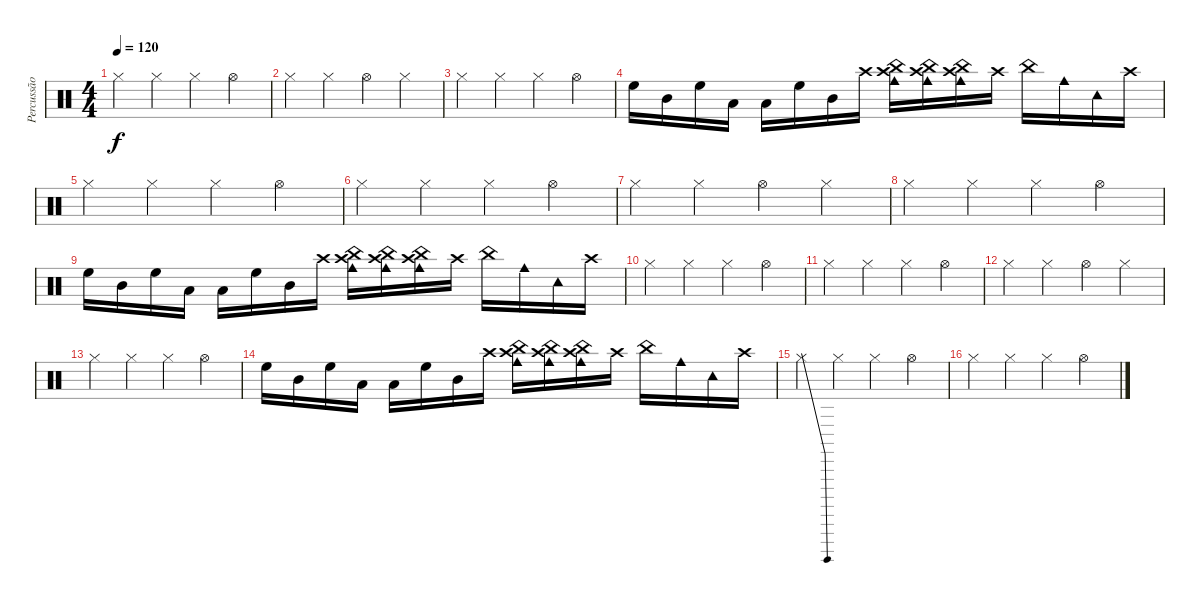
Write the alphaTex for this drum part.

\track ("Percussão" "Percussão") {instrument percussion}
\staff {score}
\articulation defaults
\ts (4 4)
\tempo 120
\clef neutral
\ks c "Hi-Hat (closed)".4{dy f} "Hi-Hat (closed)".4 "Hi-Hat (closed)".4 "Hi-Hat (open)".4
|
"Hi-Hat (closed)".4 "Hi-Hat (closed)".4 "Hi-Hat (open)".4 "Hi-Hat (closed)".4 |
"Hi-Hat (closed)".4 "Hi-Hat (closed)".4 "Hi-Hat (closed)".4 "Hi-Hat (open)".4 |
"High Floor Tom (hit)".16 "Mid Tom (hit)".16 "High Floor Tom (hit)".16 "Low Tom (hit)".16 "Low Floor Tom (hit)".16 "High Floor Tom (hit)".16 "Mid Tom (hit)".16 "Crash high (hit)".16 ("China (hit)" "Crash high (hit)" "Cowbell medium (hit)").16 ("China (hit)" "Crash high (hit)" "Cowbell medium (hit)").16 ("China (hit)" "Crash high (hit)" "Cowbell medium (hit)").16 "Crash high (hit)".16 "China (hit)".16 "Cowbell medium (hit)".16 "Tambourine (hit)".16 "Crash high (hit)".16 |
"Hi-Hat (closed)".4 "Hi-Hat (closed)".4 "Hi-Hat (closed)".4 "Hi-Hat (open)".4 |
"Hi-Hat (closed)".4 "Hi-Hat (closed)".4 "Hi-Hat (closed)".4 "Hi-Hat (open)".4 |
"Hi-Hat (closed)".4 "Hi-Hat (closed)".4 "Hi-Hat (open)".4 "Hi-Hat (closed)".4 |
"Hi-Hat (closed)".4 "Hi-Hat (closed)".4 "Hi-Hat (closed)".4 "Hi-Hat (open)".4 |
"High Floor Tom (hit)".16 "Mid Tom (hit)".16 "High Floor Tom (hit)".16 "Low Tom (hit)".16 "Low Floor Tom (hit)".16 "High Floor Tom (hit)".16 "Mid Tom (hit)".16 "Crash high (hit)".16 ("China (hit)" "Crash high (hit)" "Cowbell medium (hit)").16 ("China (hit)" "Crash high (hit)" "Cowbell medium (hit)").16 ("China (hit)" "Crash high (hit)" "Cowbell medium (hit)").16 "Crash high (hit)".16 "China (hit)".16 "Cowbell medium (hit)".16 "Tambourine (hit)".16 "Crash high (hit)".16 |
"Hi-Hat (closed)".4 "Hi-Hat (closed)".4 "Hi-Hat (closed)".4 "Hi-Hat (open)".4 |
"Hi-Hat (closed)".4 "Hi-Hat (closed)".4 "Hi-Hat (closed)".4 "Hi-Hat (open)".4 |
"Hi-Hat (closed)".4 "Hi-Hat (closed)".4 "Hi-Hat (open)".4 "Hi-Hat (closed)".4 |
"Hi-Hat (closed)".4 "Hi-Hat (closed)".4 "Hi-Hat (closed)".4 "Hi-Hat (open)".4 |
"High Floor Tom (hit)".16 "Mid Tom (hit)".16 "High Floor Tom (hit)".16 "Low Tom (hit)".16 "Low Floor Tom (hit)".16 "High Floor Tom (hit)".16 "Mid Tom (hit)".16 "Crash high (hit)".16 ("China (hit)" "Crash high (hit)" "Cowbell medium (hit)").16 ("China (hit)" "Crash high (hit)" "Cowbell medium (hit)").16 ("China (hit)" "Crash high (hit)" "Cowbell medium (hit)").16 "Crash high (hit)".16 "China (hit)".16 "Cowbell medium (hit)".16 "Tambourine (hit)".16 "Crash high (hit)".16 |
"Hi-Hat (closed)"{be (bend 0 0 60 4)}.4 "Hi-Hat (closed)".4 "Hi-Hat (closed)".4 "Hi-Hat (open)".4 |
"Hi-Hat (closed)".4 "Hi-Hat (closed)".4 "Hi-Hat (closed)".4 "Hi-Hat (open)".4
